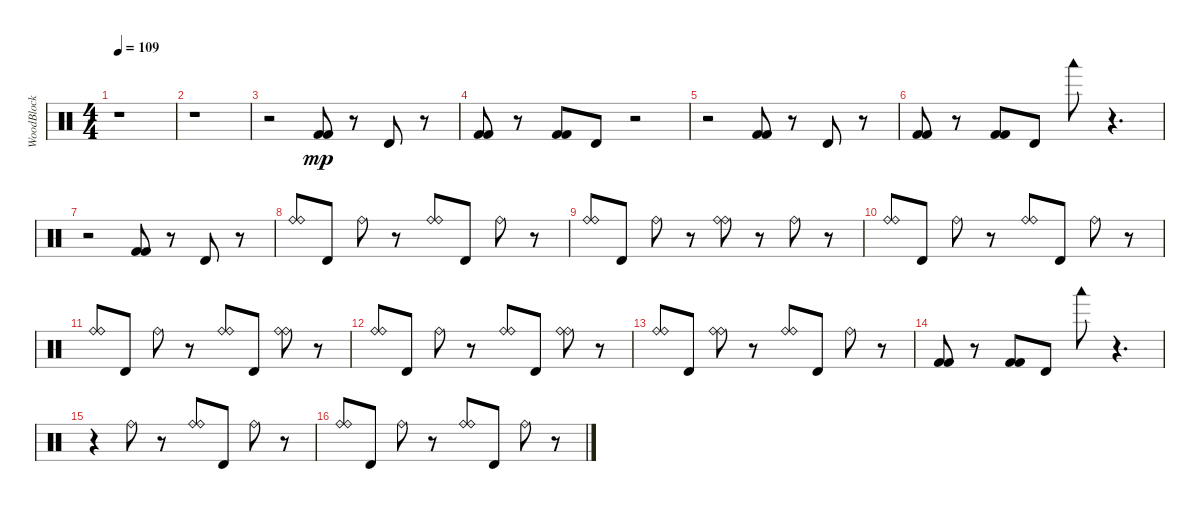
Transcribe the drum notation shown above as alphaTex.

\track ("WoodBlock of Peart" "WoodBlock ") {instrument percussion}
\staff {score}
\articulation defaults
\ts (4 4)
\tempo 109
\clef neutral
\ks c
r.1{dy mp} |
r.1 |
r.2 ("Kick (hit) 2" "Kick (hit) 2").8 r.8 "Timbale high (hit)".8 r.8 |
("Kick (hit) 2" "Kick (hit) 2").8 r.8 ("Kick (hit) 2" "Kick (hit) 2").8 "Timbale high (hit)".8 r.2 |
r.2 ("Kick (hit) 2" "Kick (hit) 2").8 r.8 "Timbale high (hit)".8 r.8 |
("Kick (hit) 2" "Kick (hit) 2").8 r.8 ("Kick (hit) 2" "Kick (hit) 2").8 "Timbale high (hit)".8 "Woodblock low (hit)".8 r.4{d} |
r.2 ("Kick (hit) 2" "Kick (hit) 2").8 r.8 "Timbale high (hit)".8 r.8 |
("Ride (bell)" "Ride (bell)").8 "Timbale high (hit)".8 "Ride (bell)".8 r.8 ("Ride (bell)" "Ride (bell)").8 "Timbale high (hit)".8 "Ride (bell)".8 r.8 |
("Ride (bell)" "Ride (bell)").8 "Timbale high (hit)".8 "Ride (bell)".8 r.8 ("Ride (bell)" "Ride (bell)").8 r.8 "Ride (bell)".8 r.8 |
("Ride (bell)" "Ride (bell)").8 "Timbale high (hit)".8 "Ride (bell)".8 r.8 ("Ride (bell)" "Ride (bell)").8 "Timbale high (hit)".8 "Ride (bell)".8 r.8 |
("Ride (bell)" "Ride (bell)").8 "Timbale high (hit)".8 "Ride (bell)".8 r.8 ("Ride (bell)" "Ride (bell)").8 "Timbale high (hit)".8 ("Ride (bell)" "Ride (bell)").8 r.8 |
("Ride (bell)" "Ride (bell)").8 "Timbale high (hit)".8 "Ride (bell)".8 r.8 ("Ride (bell)" "Ride (bell)").8 "Timbale high (hit)".8 ("Ride (bell)" "Ride (bell)").8 r.8 |
("Ride (bell)" "Ride (bell)").8 "Timbale high (hit)".8 ("Ride (bell)" "Ride (bell)").8 r.8 ("Ride (bell)" "Ride (bell)").8 "Timbale high (hit)".8 "Ride (bell)".8 r.8 |
("Kick (hit) 2" "Kick (hit) 2").8 r.8 ("Kick (hit) 2" "Kick (hit) 2").8 "Timbale high (hit)".8 "Woodblock low (hit)".8 r.4{d} |
r.4 "Ride (bell)".8 r.8 ("Ride (bell)" "Ride (bell)").8 "Timbale high (hit)".8 "Ride (bell)".8 r.8 |
("Ride (bell)" "Ride (bell)").8 "Timbale high (hit)".8 "Ride (bell)".8 r.8 ("Ride (bell)" "Ride (bell)").8 "Timbale high (hit)".8 "Ride (bell)".8 r.8
